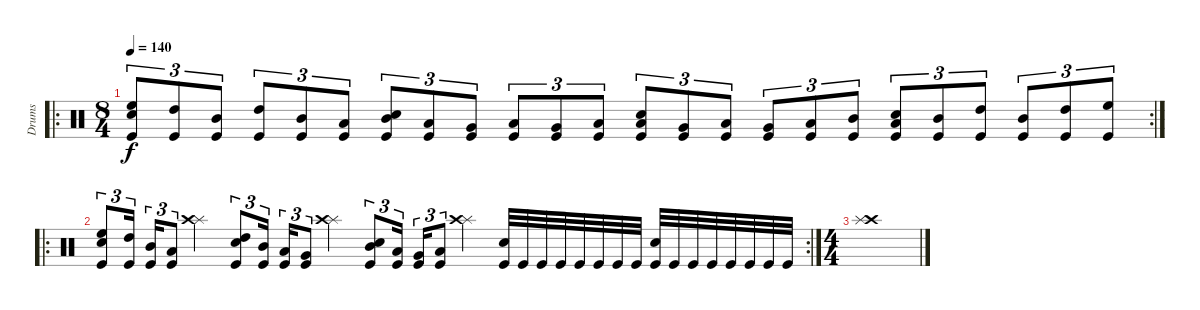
\track ("Drums" "Drums") {instrument percussion}
\staff {score}
\articulation defaults
\ro
\rc 2
\ts (8 4)
\tempo 140
\clef neutral
\ks c
("Snare (hit) 2" "High Floor Tom (hit)" "Kick (hit)").8{tu (3 2) dy f} ("High Tom (hit)" "Kick (hit)").8{tu (3 2)} ("Mid Tom (hit)" "Kick (hit)").8{tu (3 2)} ("High Tom (hit)" "Kick (hit)").8{tu (3 2)} ("Mid Tom (hit)" "Kick (hit)").8{tu (3 2)} ("Low Tom (hit)" "Kick (hit)").8{tu (3 2)} ("Snare (hit) 2" "Mid Tom (hit)" "Kick (hit)").8{tu (3 2)} ("Low Tom (hit)" "Kick (hit)").8{tu (3 2)} ("Very Low Tom (hit)" "Kick (hit)").8{tu (3 2)} ("Low Tom (hit)" "Kick (hit)").8{tu (3 2)} ("Very Low Tom (hit)" "Kick (hit)").8{tu (3 2)} ("Low Floor Tom (hit)" "Kick (hit)").8{tu (3 2)} ("Snare (hit) 2" "Low Floor Tom (hit)" "Kick (hit)").8{tu (3 2)} ("Very Low Tom (hit)" "Kick (hit)").8{tu (3 2)} ("Low Tom (hit)" "Kick (hit)").8{tu (3 2)} ("Very Low Tom (hit)" "Kick (hit)").8{tu (3 2)} ("Low Tom (hit)" "Kick (hit)").8{tu (3 2)} ("Mid Tom (hit)" "Kick (hit)").8{tu (3 2)} ("Snare (hit) 2" "Low Tom (hit)" "Kick (hit)").8{tu (3 2)} ("Mid Tom (hit)" "Kick (hit)").8{tu (3 2)} ("High Tom (hit)" "Kick (hit)").8{tu (3 2)} ("Mid Tom (hit)" "Kick (hit)").8{tu (3 2)} ("High Tom (hit)" "Kick (hit)").8{tu (3 2)} ("High Floor Tom (hit)" "Kick (hit)").8{tu (3 2)} |
\ro
\rc 2
("Snare (hit) 2" "High Floor Tom (hit)" "Kick (hit)").8{tu (3 2)} ("High Tom (hit)" "Kick (hit)").16{tu (3 2)} ("Mid Tom (hit)" "Kick (hit)").16{tu (3 2)} ("Low Tom (hit)" "Kick (hit)").8{tu (3 2)} ("Splash (hit)" "Crash high (hit)").4 ("Snare (hit) 2" "High Tom (hit)" "Kick (hit)").8{tu (3 2)} ("Mid Tom (hit)" "Kick (hit)").16{tu (3 2)} ("Low Tom (hit)" "Kick (hit)").16{tu (3 2)} ("Very Low Tom (hit)" "Kick (hit)").8{tu (3 2)} ("Splash (hit)" "Crash high (hit)").4 ("Snare (hit) 2" "Mid Tom (hit)" "Kick (hit)").8{tu (3 2)} ("Low Tom (hit)" "Kick (hit)").16{tu (3 2)} ("Very Low Tom (hit)" "Kick (hit)").16{tu (3 2)} ("Low Floor Tom (hit)" "Kick (hit)").8{tu (3 2)} ("Splash (hit)" "Crash high (hit)").4 ("Snare (hit) 2" "Kick (hit)").32 "Kick (hit)".32 "Kick (hit)".32 "Kick (hit)".32 "Kick (hit)".32 "Kick (hit)".32 "Kick (hit)".32 "Kick (hit)".32 ("Snare (hit) 2" "Kick (hit)").32 "Kick (hit)".32 "Kick (hit)".32 "Kick (hit)".32 "Kick (hit)".32 "Kick (hit)".32 "Kick (hit)".32 "Kick (hit)".32 |
\ts (4 4)
("Crash high (hit)" "Splash (hit)").1
